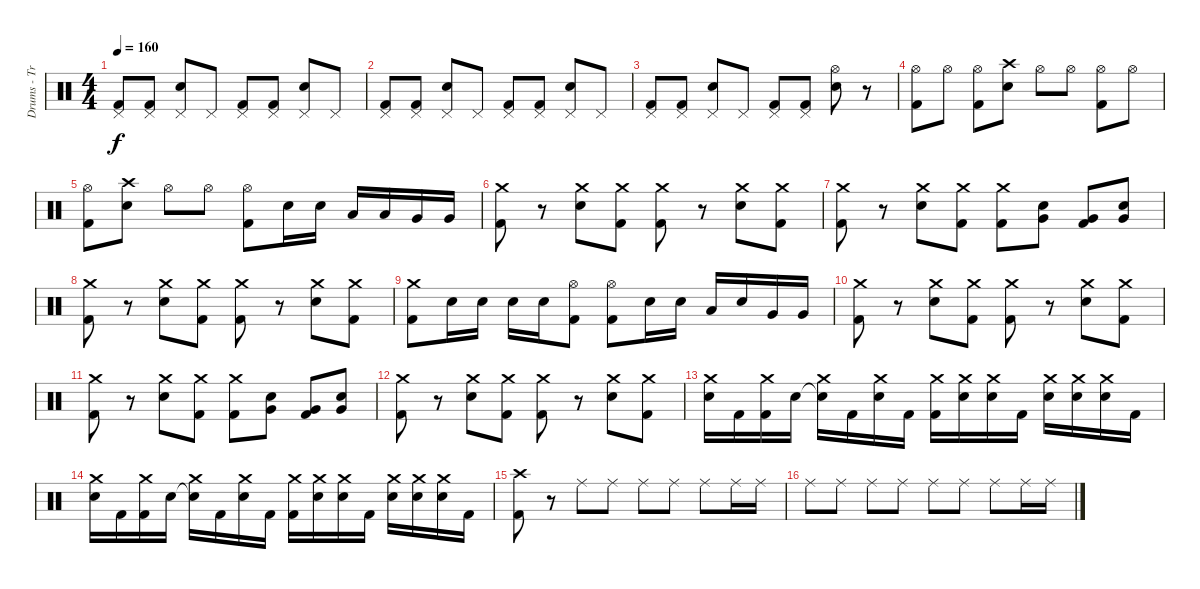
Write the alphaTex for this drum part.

\track ("Drums - Travis Barker" "Drums - Tr") {instrument percussion}
\staff {score}
\articulation defaults
\ts (4 4)
\tempo 160
\clef neutral
\ks c
("Pedal Hi-Hat (hit)" "Kick (hit) 2").8{dy f} ("Pedal Hi-Hat (hit)" "Kick (hit) 2").8 ("Pedal Hi-Hat (hit)" "Snare (hit) 2").8 "Pedal Hi-Hat (hit)".8 ("Pedal Hi-Hat (hit)" "Kick (hit) 2").8 ("Pedal Hi-Hat (hit)" "Kick (hit) 2").8 ("Pedal Hi-Hat (hit)" "Snare (hit) 2").8 "Pedal Hi-Hat (hit)".8 |
("Pedal Hi-Hat (hit)" "Kick (hit) 2").8 ("Pedal Hi-Hat (hit)" "Kick (hit) 2").8 ("Pedal Hi-Hat (hit)" "Snare (hit) 2").8 "Pedal Hi-Hat (hit)".8 ("Pedal Hi-Hat (hit)" "Kick (hit) 2").8 ("Pedal Hi-Hat (hit)" "Kick (hit) 2").8 ("Pedal Hi-Hat (hit)" "Snare (hit) 2").8 "Pedal Hi-Hat (hit)".8 |
("Pedal Hi-Hat (hit)" "Kick (hit) 2").8 ("Pedal Hi-Hat (hit)" "Kick (hit) 2").8 ("Pedal Hi-Hat (hit)" "Snare (hit) 2").8 "Pedal Hi-Hat (hit)".8 ("Pedal Hi-Hat (hit)" "Kick (hit) 2").8 ("Pedal Hi-Hat (hit)" "Kick (hit) 2").8 ("Hi-Hat (open)" "Snare (hit) 2").8 r.8 |
("Hi-Hat (open)" "Kick (hit) 2").8 "Hi-Hat (open)".8 ("Hi-Hat (open)" "Kick (hit) 2").8 ("Crash high (hit)" "Snare (hit) 2").8 "Hi-Hat (open)".8 "Hi-Hat (open)".8 ("Hi-Hat (open)" "Kick (hit) 2").8 "Hi-Hat (open)".8 |
("Hi-Hat (open)" "Kick (hit) 2").8 ("Crash high (hit)" "Snare (hit) 2").8 "Hi-Hat (open)".8 "Hi-Hat (open)".8 ("Hi-Hat (open)" "Kick (hit) 2").8 "Snare (hit) 2".16 "Snare (hit) 2".16 "Low Tom (hit)".16 "Low Tom (hit)".16 "Very Low Tom (hit)".16 "Very Low Tom (hit)".16 |
("Kick (hit) 2" "Crash medium (hit)").8 r.8 ("Snare (hit) 2" "Crash medium (hit)").8 ("Kick (hit) 2" "Crash medium (hit)").8 ("Kick (hit) 2" "Crash medium (hit)").8 r.8 ("Snare (hit) 2" "Crash medium (hit)").8 ("Kick (hit) 2" "Crash medium (hit)").8 |
("Kick (hit) 2" "Crash medium (hit)").8 r.8 ("Snare (hit) 2" "Crash medium (hit)").8 ("Kick (hit) 2" "Crash medium (hit)").8 ("Kick (hit) 2" "Crash medium (hit)").8 ("Snare (hit) 2" "Very Low Tom (hit)").8 ("Kick (hit) 2" "Very Low Tom (hit)").8 ("Snare (hit) 2" "Very Low Tom (hit)").8 |
("Kick (hit) 2" "Crash medium (hit)").8 r.8 ("Snare (hit) 2" "Crash medium (hit)").8 ("Kick (hit) 2" "Crash medium (hit)").8 ("Kick (hit) 2" "Crash medium (hit)").8 r.8 ("Snare (hit) 2" "Crash medium (hit)").8 ("Kick (hit) 2" "Crash medium (hit)").8 |
("Kick (hit) 2" "Crash medium (hit)").8 "Snare (hit) 2".16 "Snare (hit) 2".16 "Snare (hit) 2".16 "Snare (hit) 2".16 ("Hi-Hat (open)" "Kick (hit) 2").8 ("Hi-Hat (open)" "Kick (hit) 2").8 "Snare (hit) 2".16 "Snare (hit) 2".16 "Low Tom (hit)".16 "Snare (hit) 2".16 "Very Low Tom (hit)".16 "Very Low Tom (hit)".16 |
("Kick (hit) 2" "Crash medium (hit)").8 r.8 ("Snare (hit) 2" "Crash medium (hit)").8 ("Kick (hit) 2" "Crash medium (hit)").8 ("Kick (hit) 2" "Crash medium (hit)").8 r.8 ("Snare (hit) 2" "Crash medium (hit)").8 ("Kick (hit) 2" "Crash medium (hit)").8 |
("Kick (hit) 2" "Crash medium (hit)").8 r.8 ("Snare (hit) 2" "Crash medium (hit)").8 ("Kick (hit) 2" "Crash medium (hit)").8 ("Kick (hit) 2" "Crash medium (hit)").8 ("Snare (hit) 2" "Very Low Tom (hit)").8 ("Kick (hit) 2" "Very Low Tom (hit)").8 ("Snare (hit) 2" "Very Low Tom (hit)").8 |
("Kick (hit) 2" "Crash medium (hit)").8 r.8 ("Snare (hit) 2" "Crash medium (hit)").8 ("Kick (hit) 2" "Crash medium (hit)").8 ("Kick (hit) 2" "Crash medium (hit)").8 r.8 ("Snare (hit) 2" "Crash medium (hit)").8 ("Kick (hit) 2" "Crash medium (hit)").8 |
("Snare (hit) 2" "Crash medium (hit)").16 "Kick (hit) 2".16 ("Kick (hit) 2" "Crash medium (hit)").16 "Snare (hit) 2".16 ("Snare (hit)"{t} "Crash medium (hit)").16 "Kick (hit) 2".16 ("Snare (hit) 2" "Crash medium (hit)").16 "Kick (hit) 2".16 ("Kick (hit) 2" "Crash medium (hit)").16 ("Snare (hit) 2" "Crash medium (hit)").16 ("Snare (hit) 2" "Crash medium (hit)").16 "Kick (hit) 2".16 ("Snare (hit) 2" "Crash medium (hit)").16 ("Snare (hit) 2" "Crash medium (hit)").16 ("Snare (hit) 2" "Crash medium (hit)").16 "Kick (hit) 2".16 |
("Snare (hit) 2" "Crash medium (hit)").16 "Kick (hit) 2".16 ("Kick (hit) 2" "Crash medium (hit)").16 "Snare (hit) 2".16 ("Snare (hit)"{t} "Crash medium (hit)").16 "Kick (hit) 2".16 ("Snare (hit) 2" "Crash medium (hit)").16 "Kick (hit) 2".16 ("Kick (hit) 2" "Crash medium (hit)").16 ("Snare (hit) 2" "Crash medium (hit)").16 ("Snare (hit) 2" "Crash medium (hit)").16 "Kick (hit) 2".16 ("Snare (hit) 2" "Crash medium (hit)").16 ("Snare (hit) 2" "Crash medium (hit)").16 ("Snare (hit) 2" "Crash medium (hit)").16 "Kick (hit) 2".16 |
("Crash high (hit)" "Kick (hit) 2").8 r.8 "Ride (middle)".8 "Ride (middle)".8 "Ride (middle)".8 "Ride (middle)".8 "Ride (middle)".8 "Ride (middle)".16 "Ride (middle)".16 |
"Ride (middle)".8 "Ride (middle)".8 "Ride (middle)".8 "Ride (middle)".8 "Ride (middle)".8 "Ride (middle)".8 "Ride (middle)".8 "Ride (middle)".16 "Ride (middle)".16
